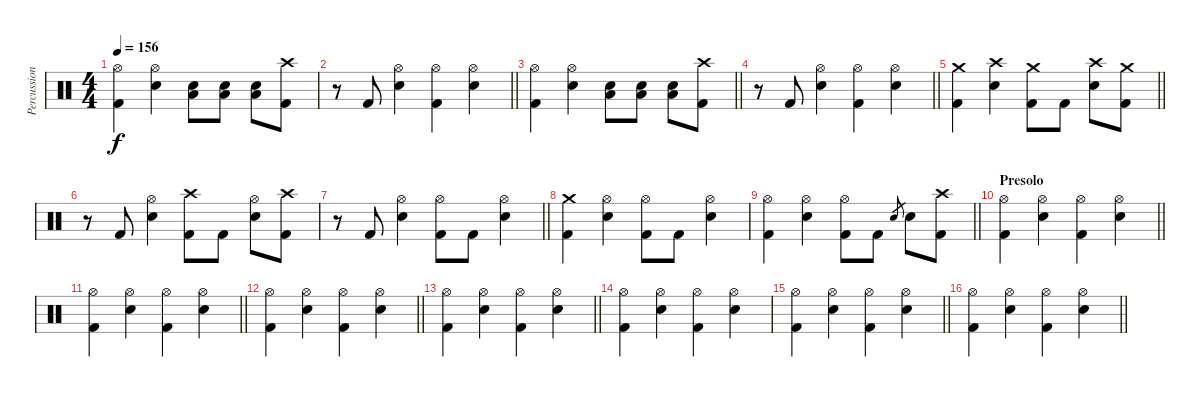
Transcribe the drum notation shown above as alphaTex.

\track ("Percussion" "Percussion") {instrument percussion}
\staff {score}
\articulation defaults
\ts (4 4)
\tempo 156
\clef neutral
\ks c
("Hi-Hat (open)" "Kick (hit) 2").4{dy f} ("Hi-Hat (open)" "Snare (hit) 2").4 ("Low Tom (hit)" "Snare (hit) 2").8 ("Low Tom (hit)" "Snare (hit) 2").8 ("Low Tom (hit)" "Snare (hit) 2").8 ("Crash high (hit)" "Kick (hit) 2").8 |
\barLineRight lightlight
r.8 "Kick (hit) 2".8 ("Hi-Hat (open)" "Snare (hit) 2").4 ("Hi-Hat (open)" "Kick (hit) 2").4 ("Hi-Hat (open)" "Snare (hit) 2").4 |
\barLineRight lightlight
("Hi-Hat (open)" "Kick (hit) 2").4 ("Hi-Hat (open)" "Snare (hit) 2").4 ("Low Tom (hit)" "Snare (hit) 2").8 ("Low Tom (hit)" "Snare (hit) 2").8 ("Low Tom (hit)" "Snare (hit) 2").8 ("Crash high (hit)" "Kick (hit) 2").8 |
\barLineRight lightlight
r.8 "Kick (hit) 2".8 ("Hi-Hat (open)" "Snare (hit) 2").4 ("Hi-Hat (open)" "Kick (hit) 2").4 ("Hi-Hat (open)" "Snare (hit) 2").4 |
\barLineRight lightlight
("Crash medium (hit)" "Kick (hit) 2").4 ("Crash high (hit)" "Snare (hit) 2").4 ("Crash medium (hit)" "Kick (hit) 2").8 "Kick (hit) 2".8 ("Crash high (hit)" "Snare (hit) 2").8 ("Crash medium (hit)" "Kick (hit) 2").8 |
r.8 "Kick (hit) 2".8 ("Hi-Hat (open)" "Snare (hit) 2").4 ("Crash high (hit)" "Kick (hit) 2").8 "Kick (hit) 2".8 ("Hi-Hat (open)" "Snare (hit) 2").8 ("Crash high (hit)" "Kick (hit) 2").8 |
\barLineRight lightlight
r.8 "Kick (hit) 2".8 ("Hi-Hat (open)" "Snare (hit) 2").4 ("Hi-Hat (open)" "Kick (hit) 2").8 "Kick (hit) 2".8 ("Hi-Hat (open)" "Snare (hit) 2").4 |
("Crash medium (hit)" "Kick (hit) 2").4 ("Hi-Hat (open)" "Snare (hit) 2").4 ("Hi-Hat (open)" "Kick (hit) 2").8 "Kick (hit) 2".8 ("Hi-Hat (open)" "Snare (hit) 2").4 |
\barLineRight lightlight
("Hi-Hat (open)" "Kick (hit) 2").4 ("Hi-Hat (open)" "Snare (hit) 2").4 ("Hi-Hat (open)" "Kick (hit) 2").8 "Kick (hit) 2".8 "Snare (hit) 2".8{gr} "Snare (hit) 2".8 ("Crash high (hit)" "Kick (hit) 2").8 |
\section ("" "Presolo")
\barLineRight lightlight
("Hi-Hat (open)" "Kick (hit) 2").4 ("Hi-Hat (open)" "Snare (hit) 2").4 ("Hi-Hat (open)" "Kick (hit) 2").4 ("Hi-Hat (open)" "Snare (hit) 2").4 |
\barLineRight lightlight
("Hi-Hat (open)" "Kick (hit) 2").4 ("Hi-Hat (open)" "Snare (hit) 2").4 ("Hi-Hat (open)" "Kick (hit) 2").4 ("Hi-Hat (open)" "Snare (hit) 2").4 |
\barLineRight lightlight
("Hi-Hat (open)" "Kick (hit) 2").4 ("Hi-Hat (open)" "Snare (hit) 2").4 ("Hi-Hat (open)" "Kick (hit) 2").4 ("Hi-Hat (open)" "Snare (hit) 2").4 |
\barLineRight lightlight
("Hi-Hat (open)" "Kick (hit) 2").4 ("Hi-Hat (open)" "Snare (hit) 2").4 ("Hi-Hat (open)" "Kick (hit) 2").4 ("Hi-Hat (open)" "Snare (hit) 2").4 |
("Hi-Hat (open)" "Kick (hit) 2").4 ("Hi-Hat (open)" "Snare (hit) 2").4 ("Hi-Hat (open)" "Kick (hit) 2").4 ("Hi-Hat (open)" "Snare (hit) 2").4 |
\barLineRight lightlight
("Hi-Hat (open)" "Kick (hit) 2").4 ("Hi-Hat (open)" "Snare (hit) 2").4 ("Hi-Hat (open)" "Kick (hit) 2").4 ("Hi-Hat (open)" "Snare (hit) 2").4 |
\barLineRight lightlight
("Hi-Hat (open)" "Kick (hit) 2").4 ("Hi-Hat (open)" "Snare (hit) 2").4 ("Hi-Hat (open)" "Kick (hit) 2").4 ("Hi-Hat (open)" "Snare (hit) 2").4
